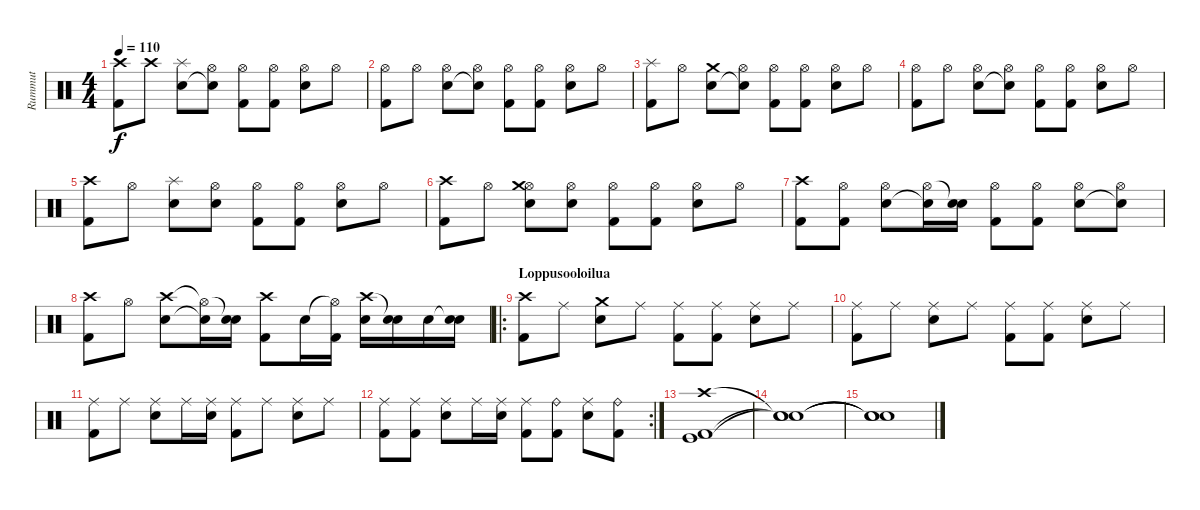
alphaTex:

\track ("Rummut" "Rummut") {instrument percussion}
\staff {score}
\articulation defaults
\ts (4 4)
\tempo 110
\clef neutral
\ks c
("Crash high (hit)" "Kick (hit) 2").8{dy f} "Crash high (hit)".8 ("Splash (hit)" "Snare (hit) 2").8 ("Hi-Hat (open)" "Snare (hit)"{t}).8 ("Hi-Hat (open)" "Kick (hit) 2").8 ("Hi-Hat (open)" "Kick (hit) 2").8 ("Hi-Hat (open)" "Snare (hit) 2").8 "Hi-Hat (open)".8 |
("Hi-Hat (open)" "Kick (hit) 2").8 "Hi-Hat (open)".8 ("Hi-Hat (open)" "Snare (hit) 2").8 ("Hi-Hat (open)" "Snare (hit)"{t}).8 ("Hi-Hat (open)" "Kick (hit) 2").8 ("Hi-Hat (open)" "Kick (hit) 2").8 ("Hi-Hat (open)" "Snare (hit) 2").8 "Hi-Hat (open)".8 |
("Splash (hit)" "Kick (hit) 2").8 "Hi-Hat (open)".8 ("Crash medium (hit)" "Snare (hit) 2").8 ("Hi-Hat (open)" "Snare (hit)"{t}).8 ("Hi-Hat (open)" "Kick (hit) 2").8 ("Hi-Hat (open)" "Kick (hit) 2").8 ("Hi-Hat (open)" "Snare (hit) 2").8 "Hi-Hat (open)".8 |
("Hi-Hat (open)" "Kick (hit) 2").8 "Hi-Hat (open)".8 ("Hi-Hat (open)" "Snare (hit) 2").8 ("Hi-Hat (open)" "Snare (hit)"{t}).8 ("Hi-Hat (open)" "Kick (hit) 2").8 ("Hi-Hat (open)" "Kick (hit) 2").8 ("Hi-Hat (open)" "Snare (hit) 2").8 "Hi-Hat (open)".8 |
("Crash high (hit)" "Kick (hit) 2").8 "Hi-Hat (open)".8 ("Splash (hit)" "Snare (hit) 2").8 ("Hi-Hat (open)" "Snare (hit) 2").8 ("Hi-Hat (open)" "Kick (hit) 2").8 ("Hi-Hat (open)" "Kick (hit) 2").8 ("Hi-Hat (open)" "Snare (hit) 2").8 "Hi-Hat (open)".8 |
("Crash high (hit)" "Kick (hit) 2").8 "Hi-Hat (open)".8 ("Hi-Hat (open)" "Crash medium (hit)" "Snare (hit) 2").8 ("Hi-Hat (open)" "Snare (hit) 2").8 ("Hi-Hat (open)" "Kick (hit) 2").8 ("Hi-Hat (open)" "Kick (hit) 2").8 ("Hi-Hat (open)" "Snare (hit) 2").8 "Hi-Hat (open)".8 |
("Crash high (hit)" "Kick (hit) 2").8 ("Hi-Hat (open)" "Kick (hit) 2").8 ("Hi-Hat (open)" "Snare (hit) 2").8 ("Hi-Hat (open)" "Snare (hit) 2"{t}).16 ("Snare (hit)"{t} "Snare (hit) 2").16 ("Hi-Hat (open)" "Kick (hit) 2").8 ("Hi-Hat (open)" "Kick (hit) 2").8 ("Hi-Hat (open)" "Snare (hit) 2").8 ("Hi-Hat (open)" "Snare (hit)"{t}).8 |
("Crash high (hit)" "Kick (hit) 2").8 "Hi-Hat (open)".8 ("Crash high (hit)" "Snare (hit) 2").8 ("Hi-Hat (open)"{t} "Snare (hit) 2"{t}).16 ("Snare (hit)"{t} "Snare (hit) 2").16 ("Crash high (hit)" "Kick (hit) 2").8 "Snare (hit) 2".16 ("Hi-Hat (open)"{t} "Kick (hit) 2").16 ("Crash high (hit)" "Snare (hit) 2").16 ("Snare (hit)"{t} "Snare (hit) 2").16 "Snare (hit) 2".16 ("Snare (hit)"{t} "Snare (hit) 2").16 |
\ro
\section ("" "Loppusooloilua")
("Crash high (hit)" "Kick (hit) 2").8 "Ride (middle)".8 ("Crash medium (hit)" "Snare (hit) 2").8 "Ride (middle)".8 ("Ride (middle)" "Kick (hit) 2").8 ("Ride (middle)" "Kick (hit) 2").8 ("Ride (middle)" "Snare (hit) 2").8 "Ride (middle)".8 |
("Ride (middle)" "Kick (hit) 2").8 "Ride (middle)".8 ("Ride (middle)" "Snare (hit) 2").8 "Ride (middle)".8 ("Ride (middle)" "Kick (hit) 2").8 ("Ride (middle)" "Kick (hit) 2").8 ("Ride (middle)" "Snare (hit) 2").8 "Ride (middle)".8 |
("Ride (middle)" "Kick (hit) 2").8 "Ride (middle)".8 ("Ride (middle)" "Snare (hit) 2").8 "Ride (middle)".16 ("Ride (middle)" "Snare (hit) 2").16 ("Ride (middle)" "Kick (hit) 2").8 "Ride (middle)".8 ("Ride (middle)" "Snare (hit) 2").8 "Ride (middle)".8 |
\rc 2
("Ride (middle)" "Kick (hit) 2").8 ("Ride (middle)" "Kick (hit) 2").8 ("Ride (middle)" "Snare (hit) 2").8 "Ride (middle)".16 ("Ride (middle)" "Snare (hit) 2").16 ("Ride (middle)" "Kick (hit) 2").8 ("Ride (bell)" "Kick (hit) 2").8 ("Ride (middle)" "Snare (hit) 2").8 ("Ride (bell)" "Kick (hit) 2").8 |
("Crash high (hit)" "Kick (hit) 2" "Kick (hit)").1 |
("Snare (hit)"{t} "Snare (hit)"{t} "Snare (hit)"{t}).1 |
("Snare (hit)"{t} "Snare (hit)"{t} "Snare (hit)"{t}).1
